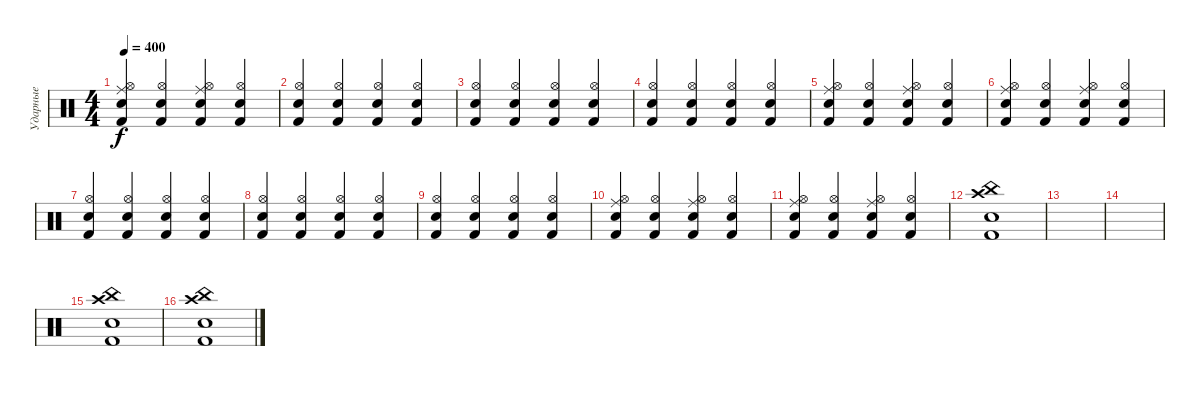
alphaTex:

\track ("Ударные" "Ударные") {instrument percussion}
\staff {score}
\articulation defaults
\ts (4 4)
\tempo 400
\clef neutral
\ks c
("Electric Snare (hit)" "Hi-Hat (open)" "Ride (middle)" "Kick (hit) 2").4{dy f} ("Hi-Hat (open)" "Kick (hit) 2" "Electric Snare (hit)").4 ("Electric Snare (hit)" "Kick (hit) 2" "Hi-Hat (open)" "Ride (middle)").4 ("Hi-Hat (open)" "Kick (hit) 2" "Electric Snare (hit)").4 |
("Electric Snare (hit)" "Hi-Hat (open)" "Kick (hit) 2").4 ("Hi-Hat (open)" "Kick (hit) 2" "Electric Snare (hit)").4 ("Electric Snare (hit)" "Kick (hit) 2" "Hi-Hat (open)").4 ("Hi-Hat (open)" "Kick (hit) 2" "Electric Snare (hit)").4 |
("Electric Snare (hit)" "Hi-Hat (open)" "Kick (hit) 2").4 ("Hi-Hat (open)" "Kick (hit) 2" "Electric Snare (hit)").4 ("Electric Snare (hit)" "Kick (hit) 2" "Hi-Hat (open)").4 ("Hi-Hat (open)" "Kick (hit) 2" "Electric Snare (hit)").4 |
("Electric Snare (hit)" "Hi-Hat (open)" "Kick (hit) 2").4 ("Hi-Hat (open)" "Kick (hit) 2" "Electric Snare (hit)").4 ("Electric Snare (hit)" "Kick (hit) 2" "Hi-Hat (open)").4 ("Hi-Hat (open)" "Kick (hit) 2" "Electric Snare (hit)").4 |
("Electric Snare (hit)" "Hi-Hat (open)" "Ride (middle)" "Kick (hit) 2").4 ("Hi-Hat (open)" "Kick (hit) 2" "Electric Snare (hit)").4 ("Electric Snare (hit)" "Kick (hit) 2" "Hi-Hat (open)" "Ride (middle)").4 ("Hi-Hat (open)" "Kick (hit) 2" "Electric Snare (hit)").4 |
("Electric Snare (hit)" "Hi-Hat (open)" "Ride (middle)" "Kick (hit) 2").4 ("Hi-Hat (open)" "Kick (hit) 2" "Electric Snare (hit)").4 ("Electric Snare (hit)" "Kick (hit) 2" "Hi-Hat (open)" "Ride (middle)").4 ("Hi-Hat (open)" "Kick (hit) 2" "Electric Snare (hit)").4 |
("Electric Snare (hit)" "Hi-Hat (open)" "Kick (hit) 2").4 ("Hi-Hat (open)" "Kick (hit) 2" "Electric Snare (hit)").4 ("Electric Snare (hit)" "Kick (hit) 2" "Hi-Hat (open)").4 ("Hi-Hat (open)" "Kick (hit) 2" "Electric Snare (hit)").4 |
("Electric Snare (hit)" "Hi-Hat (open)" "Kick (hit) 2").4 ("Hi-Hat (open)" "Kick (hit) 2" "Electric Snare (hit)").4 ("Electric Snare (hit)" "Kick (hit) 2" "Hi-Hat (open)").4 ("Hi-Hat (open)" "Kick (hit) 2" "Electric Snare (hit)").4 |
("Electric Snare (hit)" "Hi-Hat (open)" "Kick (hit) 2").4 ("Hi-Hat (open)" "Kick (hit) 2" "Electric Snare (hit)").4 ("Electric Snare (hit)" "Kick (hit) 2" "Hi-Hat (open)").4 ("Hi-Hat (open)" "Kick (hit) 2" "Electric Snare (hit)").4 |
("Electric Snare (hit)" "Hi-Hat (open)" "Ride (middle)" "Kick (hit) 2").4 ("Hi-Hat (open)" "Kick (hit) 2" "Electric Snare (hit)").4 ("Electric Snare (hit)" "Kick (hit) 2" "Hi-Hat (open)" "Ride (middle)").4 ("Hi-Hat (open)" "Kick (hit) 2" "Electric Snare (hit)").4 |
("Electric Snare (hit)" "Hi-Hat (open)" "Ride (middle)" "Kick (hit) 2").4 ("Hi-Hat (open)" "Kick (hit) 2" "Electric Snare (hit)").4 ("Electric Snare (hit)" "Kick (hit) 2" "Hi-Hat (open)" "Ride (middle)").4 ("Hi-Hat (open)" "Kick (hit) 2" "Electric Snare (hit)").4 |
("Kick (hit) 2" "Electric Snare (hit)" "Crash high (hit)" "China (hit)").1 |
|
|
("Kick (hit) 2" "Electric Snare (hit)" "Crash high (hit)" "China (hit)").1 |
("Kick (hit) 2" "Electric Snare (hit)" "Crash high (hit)" "China (hit)").1
